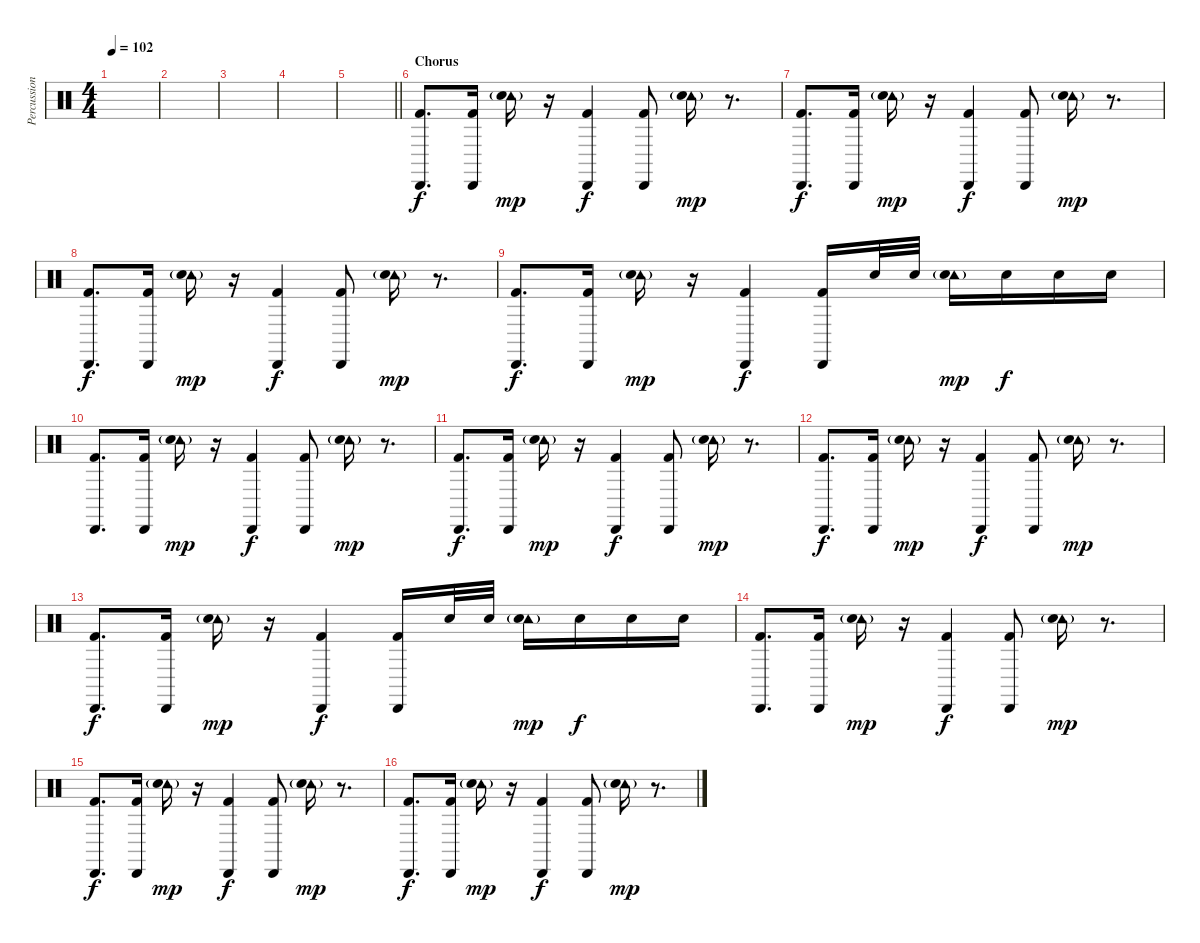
\track ("Percussion" "Percussion") {instrument percussion}
\staff {score}
\articulation defaults
\ts (4 4)
\tempo 102
\clef neutral
\ks c
|
|
|
|
\barLineRight lightlight
|
\section ("" "Chorus")
("Cabasa (hit)" "Kick (hit) 2").8{d dy f} ("Cabasa (hit)" "Kick (hit) 2").16 ("Tambourine (hit)"{g} "Electric Snare (hit)").16{dy mp} r.16 ("Cabasa (hit)" "Kick (hit) 2").4{dy f} ("Cabasa (hit)" "Kick (hit) 2").8 ("Tambourine (hit)"{g} "Electric Snare (hit)").16{dy mp} r.8{d} |
("Cabasa (hit)" "Kick (hit) 2").8{d dy f} ("Cabasa (hit)" "Kick (hit) 2").16 ("Tambourine (hit)"{g} "Electric Snare (hit)").16{dy mp} r.16 ("Cabasa (hit)" "Kick (hit) 2").4{dy f} ("Cabasa (hit)" "Kick (hit) 2").8 ("Tambourine (hit)"{g} "Electric Snare (hit)").16{dy mp} r.8{d} |
("Cabasa (hit)" "Kick (hit) 2").8{d dy f} ("Cabasa (hit)" "Kick (hit) 2").16 ("Tambourine (hit)"{g} "Electric Snare (hit)").16{dy mp} r.16 ("Cabasa (hit)" "Kick (hit) 2").4{dy f} ("Cabasa (hit)" "Kick (hit) 2").8 ("Tambourine (hit)"{g} "Electric Snare (hit)").16{dy mp} r.8{d} |
("Cabasa (hit)" "Kick (hit) 2").8{d dy f} ("Cabasa (hit)" "Kick (hit) 2").16 ("Tambourine (hit)"{g} "Electric Snare (hit)").16{dy mp} r.16 ("Cabasa (hit)" "Kick (hit) 2").4{dy f} ("Cabasa (hit)" "Kick (hit) 2").16 "Electric Snare (hit)".32 "Electric Snare (hit)".32 ("Tambourine (hit)"{g} "Electric Snare (hit)").16{dy mp} "Electric Snare (hit)".16{dy f} "Electric Snare (hit)".16 "Electric Snare (hit)".16 |
("Cabasa (hit)" "Kick (hit) 2").8{d} ("Cabasa (hit)" "Kick (hit) 2").16 ("Tambourine (hit)"{g} "Electric Snare (hit)").16{dy mp} r.16 ("Cabasa (hit)" "Kick (hit) 2").4{dy f} ("Cabasa (hit)" "Kick (hit) 2").8 ("Tambourine (hit)"{g} "Electric Snare (hit)").16{dy mp} r.8{d} |
("Cabasa (hit)" "Kick (hit) 2").8{d dy f} ("Cabasa (hit)" "Kick (hit) 2").16 ("Tambourine (hit)"{g} "Electric Snare (hit)").16{dy mp} r.16 ("Cabasa (hit)" "Kick (hit) 2").4{dy f} ("Cabasa (hit)" "Kick (hit) 2").8 ("Tambourine (hit)"{g} "Electric Snare (hit)").16{dy mp} r.8{d} |
("Cabasa (hit)" "Kick (hit) 2").8{d dy f} ("Cabasa (hit)" "Kick (hit) 2").16 ("Tambourine (hit)"{g} "Electric Snare (hit)").16{dy mp} r.16 ("Cabasa (hit)" "Kick (hit) 2").4{dy f} ("Cabasa (hit)" "Kick (hit) 2").8 ("Tambourine (hit)"{g} "Electric Snare (hit)").16{dy mp} r.8{d} |
("Cabasa (hit)" "Kick (hit) 2").8{d dy f} ("Cabasa (hit)" "Kick (hit) 2").16 ("Tambourine (hit)"{g} "Electric Snare (hit)").16{dy mp} r.16 ("Cabasa (hit)" "Kick (hit) 2").4{dy f} ("Cabasa (hit)" "Kick (hit) 2").16 "Electric Snare (hit)".32 "Electric Snare (hit)".32 ("Tambourine (hit)"{g} "Electric Snare (hit)").16{dy mp} "Electric Snare (hit)".16{dy f} "Electric Snare (hit)".16 "Electric Snare (hit)".16 |
("Cabasa (hit)" "Kick (hit) 2").8{d} ("Cabasa (hit)" "Kick (hit) 2").16 ("Tambourine (hit)"{g} "Electric Snare (hit)").16{dy mp} r.16 ("Cabasa (hit)" "Kick (hit) 2").4{dy f} ("Cabasa (hit)" "Kick (hit) 2").8 ("Tambourine (hit)"{g} "Electric Snare (hit)").16{dy mp} r.8{d} |
("Cabasa (hit)" "Kick (hit) 2").8{d dy f} ("Cabasa (hit)" "Kick (hit) 2").16 ("Tambourine (hit)"{g} "Electric Snare (hit)").16{dy mp} r.16 ("Cabasa (hit)" "Kick (hit) 2").4{dy f} ("Cabasa (hit)" "Kick (hit) 2").8 ("Tambourine (hit)"{g} "Electric Snare (hit)").16{dy mp} r.8{d} |
("Cabasa (hit)" "Kick (hit) 2").8{d dy f} ("Cabasa (hit)" "Kick (hit) 2").16 ("Tambourine (hit)"{g} "Electric Snare (hit)").16{dy mp} r.16 ("Cabasa (hit)" "Kick (hit) 2").4{dy f} ("Cabasa (hit)" "Kick (hit) 2").8 ("Tambourine (hit)"{g} "Electric Snare (hit)").16{dy mp} r.8{d}
